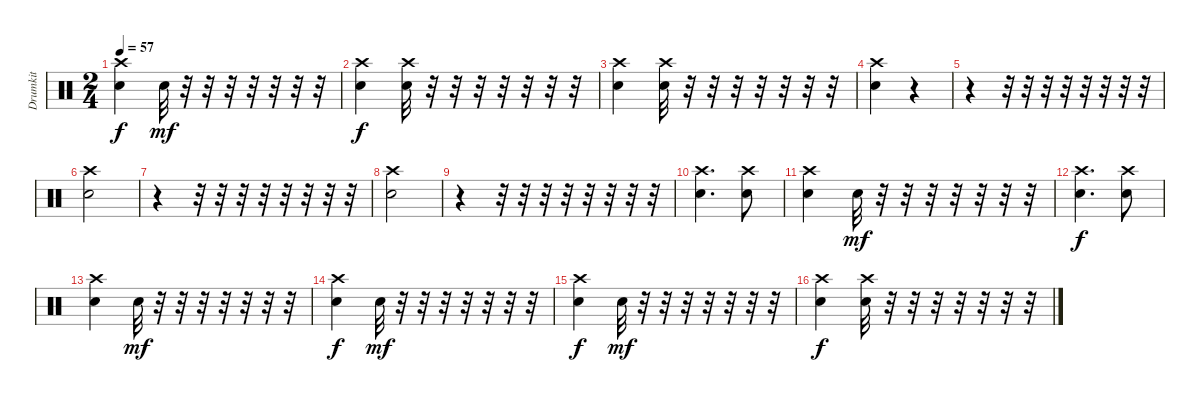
\track ("Drumkit" "Drumkit") {instrument percussion}
\staff {score}
\articulation defaults
\ts (2 4)
\tempo 57
\clef neutral
\ks c
("Crash high (hit)" "Snare (hit) 2").4{dy f} "Snare (hit) 2".32{dy mf} r.32 r.32 r.32 r.32 r.32 r.32 r.32 |
("Crash high (hit)" "Snare (hit) 2").4{dy f} ("Crash high (hit)" "Snare (hit) 2").32 r.32 r.32 r.32 r.32 r.32 r.32 r.32 |
("Crash high (hit)" "Snare (hit) 2").4 ("Crash high (hit)" "Snare (hit) 2").32 r.32 r.32 r.32 r.32 r.32 r.32 r.32 |
("Crash high (hit)" "Snare (hit) 2").4 r.4 |
r.4 r.32 r.32 r.32 r.32 r.32 r.32 r.32 r.32 |
("Crash high (hit)" "Snare (hit) 2").2 |
r.4 r.32 r.32 r.32 r.32 r.32 r.32 r.32 r.32 |
("Crash high (hit)" "Snare (hit) 2").2 |
r.4 r.32 r.32 r.32 r.32 r.32 r.32 r.32 r.32 |
("Crash high (hit)" "Snare (hit) 2").4{d} ("Crash high (hit)" "Snare (hit) 2").8 |
("Crash high (hit)" "Snare (hit) 2").4 "Snare (hit) 2".32{dy mf} r.32 r.32 r.32 r.32 r.32 r.32 r.32 |
("Crash high (hit)" "Snare (hit) 2").4{d dy f} ("Crash high (hit)" "Snare (hit) 2").8 |
("Crash high (hit)" "Snare (hit) 2").4 "Snare (hit) 2".32{dy mf} r.32 r.32 r.32 r.32 r.32 r.32 r.32 |
("Crash high (hit)" "Snare (hit) 2").4{dy f} "Snare (hit) 2".32{dy mf} r.32 r.32 r.32 r.32 r.32 r.32 r.32 |
("Crash high (hit)" "Snare (hit) 2").4{dy f} "Snare (hit) 2".32{dy mf} r.32 r.32 r.32 r.32 r.32 r.32 r.32 |
("Crash high (hit)" "Snare (hit) 2").4{dy f} ("Crash high (hit)" "Snare (hit) 2").32 r.32 r.32 r.32 r.32 r.32 r.32 r.32
